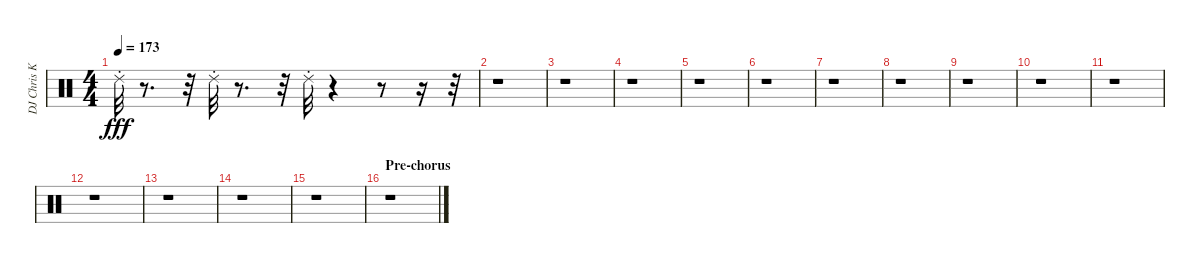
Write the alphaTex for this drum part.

\track ("DJ Chris Kilmore-Turntables" "DJ Chris K") {instrument percussion}
\staff {score}
\articulation defaults
\ts (4 4)
\tempo 173
\clef neutral
\ks c "Ride (choke) 2".32{dy fff}
r.8{d} r.32 "Ride (choke) 2".32 r.8{d} r.32 "Ride (choke) 2".32 r.4 r.8 r.16 r.32 |
r.1 |
r.1 |
r.1 |
r.1 |
r.1 |
r.1 |
r.1 |
r.1 |
r.1 |
r.1 |
r.1 |
r.1 |
r.1 |
r.1 |
\section ("" "Pre-chorus")
r.1
